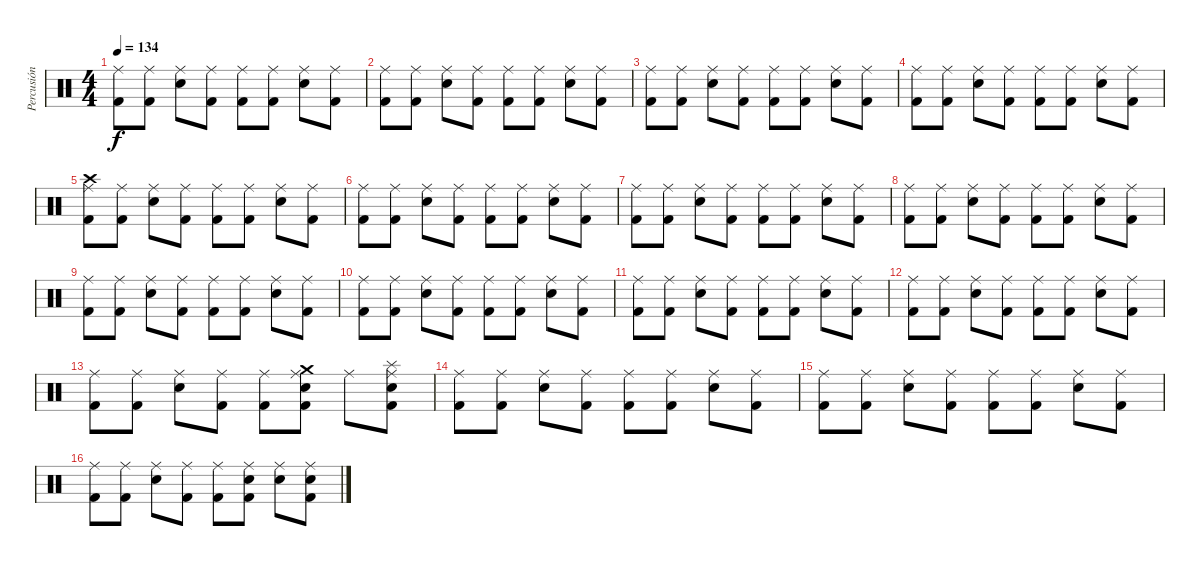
\track ("Percusión" "Percusión") {instrument percussion}
\staff {score}
\articulation defaults
\ts (4 4)
\tempo 134
\clef neutral
\ks c
("Ride (middle)" "Kick (hit) 2").8{dy f} ("Ride (middle)" "Kick (hit) 2").8 ("Ride (middle)" "Snare (hit) 2").8 ("Ride (middle)" "Kick (hit) 2").8 ("Ride (middle)" "Kick (hit) 2").8 ("Ride (middle)" "Kick (hit) 2").8 ("Ride (middle)" "Snare (hit) 2").8 ("Ride (middle)" "Kick (hit) 2").8 |
("Ride (middle)" "Kick (hit) 2").8 ("Ride (middle)" "Kick (hit) 2").8 ("Ride (middle)" "Snare (hit) 2").8 ("Ride (middle)" "Kick (hit) 2").8 ("Ride (middle)" "Kick (hit) 2").8 ("Ride (middle)" "Kick (hit) 2").8 ("Ride (middle)" "Snare (hit) 2").8 ("Ride (middle)" "Kick (hit) 2").8 |
("Ride (middle)" "Kick (hit) 2").8 ("Ride (middle)" "Kick (hit) 2").8 ("Ride (middle)" "Snare (hit) 2").8 ("Ride (middle)" "Kick (hit) 2").8 ("Ride (middle)" "Kick (hit) 2").8 ("Ride (middle)" "Kick (hit) 2").8 ("Ride (middle)" "Snare (hit) 2").8 ("Ride (middle)" "Kick (hit) 2").8 |
("Ride (middle)" "Kick (hit) 2").8 ("Ride (middle)" "Kick (hit) 2").8 ("Ride (middle)" "Snare (hit) 2").8 ("Ride (middle)" "Kick (hit) 2").8 ("Ride (middle)" "Kick (hit) 2").8 ("Ride (middle)" "Kick (hit) 2").8 ("Ride (middle)" "Snare (hit) 2").8 ("Ride (middle)" "Kick (hit) 2").8 |
("Crash high (hit)" "Ride (middle)" "Kick (hit) 2").8 ("Ride (middle)" "Kick (hit) 2").8 ("Ride (middle)" "Snare (hit) 2").8 ("Ride (middle)" "Kick (hit) 2").8 ("Ride (middle)" "Kick (hit) 2").8 ("Ride (middle)" "Kick (hit) 2").8 ("Ride (middle)" "Snare (hit) 2").8 ("Ride (middle)" "Kick (hit) 2").8 |
("Ride (middle)" "Kick (hit) 2").8 ("Ride (middle)" "Kick (hit) 2").8 ("Ride (middle)" "Snare (hit) 2").8 ("Ride (middle)" "Kick (hit) 2").8 ("Ride (middle)" "Kick (hit) 2").8 ("Ride (middle)" "Kick (hit) 2").8 ("Ride (middle)" "Snare (hit) 2").8 ("Ride (middle)" "Kick (hit) 2").8 |
("Ride (middle)" "Kick (hit) 2").8 ("Ride (middle)" "Kick (hit) 2").8 ("Ride (middle)" "Snare (hit) 2").8 ("Ride (middle)" "Kick (hit) 2").8 ("Ride (middle)" "Kick (hit) 2").8 ("Ride (middle)" "Kick (hit) 2").8 ("Ride (middle)" "Snare (hit) 2").8 ("Ride (middle)" "Kick (hit) 2").8 |
("Ride (middle)" "Kick (hit) 2").8 ("Ride (middle)" "Kick (hit) 2").8 ("Ride (middle)" "Snare (hit) 2").8 ("Ride (middle)" "Kick (hit) 2").8 ("Ride (middle)" "Kick (hit) 2").8 ("Ride (middle)" "Kick (hit) 2").8 ("Ride (middle)" "Snare (hit) 2").8 ("Ride (middle)" "Kick (hit) 2").8 |
("Ride (middle)" "Kick (hit) 2").8 ("Ride (middle)" "Kick (hit) 2").8 ("Ride (middle)" "Snare (hit) 2").8 ("Ride (middle)" "Kick (hit) 2").8 ("Ride (middle)" "Kick (hit) 2").8 ("Ride (middle)" "Kick (hit) 2").8 ("Ride (middle)" "Snare (hit) 2").8 ("Ride (middle)" "Kick (hit) 2").8 |
("Ride (middle)" "Kick (hit) 2").8 ("Ride (middle)" "Kick (hit) 2").8 ("Ride (middle)" "Snare (hit) 2").8 ("Ride (middle)" "Kick (hit) 2").8 ("Ride (middle)" "Kick (hit) 2").8 ("Ride (middle)" "Kick (hit) 2").8 ("Ride (middle)" "Snare (hit) 2").8 ("Ride (middle)" "Kick (hit) 2").8 |
("Ride (middle)" "Kick (hit) 2").8 ("Ride (middle)" "Kick (hit) 2").8 ("Ride (middle)" "Snare (hit) 2").8 ("Ride (middle)" "Kick (hit) 2").8 ("Ride (middle)" "Kick (hit) 2").8 ("Ride (middle)" "Kick (hit) 2").8 ("Ride (middle)" "Snare (hit) 2").8 ("Ride (middle)" "Kick (hit) 2").8 |
("Ride (middle)" "Kick (hit) 2").8 ("Ride (middle)" "Kick (hit) 2").8 ("Ride (middle)" "Snare (hit) 2").8 ("Ride (middle)" "Kick (hit) 2").8 ("Ride (middle)" "Kick (hit) 2").8 ("Ride (middle)" "Kick (hit) 2").8 ("Ride (middle)" "Snare (hit) 2").8 ("Ride (middle)" "Kick (hit) 2").8 |
("Ride (middle)" "Kick (hit) 2").8 ("Ride (middle)" "Kick (hit) 2").8 ("Ride (middle)" "Snare (hit) 2").8 ("Ride (middle)" "Kick (hit) 2").8 ("Ride (middle)" "Kick (hit) 2").8 ("Crash medium (hit)" "Ride (middle)" "Snare (hit) 2" "Kick (hit) 2").8 "Ride (middle)".8 ("Splash (hit)" "Ride (middle)" "Snare (hit) 2" "Kick (hit) 2").8 |
("Ride (middle)" "Kick (hit) 2").8 ("Ride (middle)" "Kick (hit) 2").8 ("Ride (middle)" "Snare (hit) 2").8 ("Ride (middle)" "Kick (hit) 2").8 ("Ride (middle)" "Kick (hit) 2").8 ("Ride (middle)" "Kick (hit) 2").8 ("Ride (middle)" "Snare (hit) 2").8 ("Ride (middle)" "Kick (hit) 2").8 |
("Ride (middle)" "Kick (hit) 2").8 ("Ride (middle)" "Kick (hit) 2").8 ("Ride (middle)" "Snare (hit) 2").8 ("Ride (middle)" "Kick (hit) 2").8 ("Ride (middle)" "Kick (hit) 2").8 ("Ride (middle)" "Kick (hit) 2").8 ("Ride (middle)" "Snare (hit) 2").8 ("Ride (middle)" "Kick (hit) 2").8 |
("Ride (middle)" "Kick (hit) 2").8 ("Ride (middle)" "Kick (hit) 2").8 ("Ride (middle)" "Snare (hit) 2").8 ("Ride (middle)" "Kick (hit) 2").8 ("Ride (middle)" "Kick (hit) 2").8 ("Ride (middle)" "Snare (hit) 2" "Kick (hit) 2").8 ("Ride (middle)" "Snare (hit) 2").8 ("Ride (middle)" "Snare (hit) 2" "Kick (hit) 2").8
